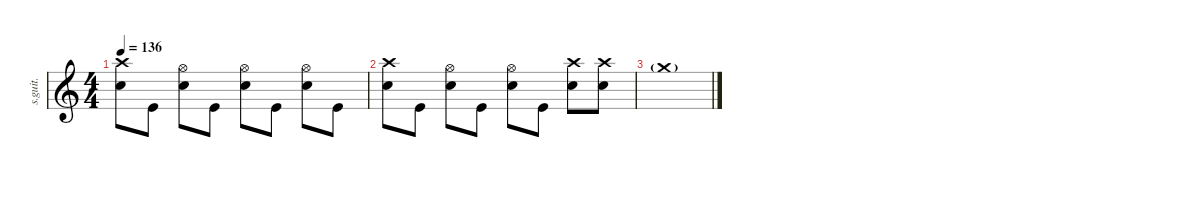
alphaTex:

\defaultSystemsLayout 4
\hideDynamics
\bracketExtendMode nobrackets
\track ("Ilan Rubin" "s.guit.") {instrument percussion}
\staff {score}
\articulation defaults
\ts (4 4)
\tempo 136
\clef g2
\ks c
("Crash high (hit)" "Electric Snare (hit)").8{lyrics (0 "") lyrics (1 "") lyrics (2 "") lyrics (3 "") lyrics (4 "") dy f} "Kick (hit)".8{lyrics (0 "") lyrics (1 "") lyrics (2 "") lyrics (3 "") lyrics (4 "") dy ff} ("Hi-Hat (open)" "Electric Snare (hit)").8{lyrics (0 "") lyrics (1 "") lyrics (2 "") lyrics (3 "") lyrics (4 "") dy f} "Kick (hit)".8{lyrics (0 "") lyrics (1 "") lyrics (2 "") lyrics (3 "") lyrics (4 "") dy ff} ("Hi-Hat (open)" "Electric Snare (hit)").8{lyrics (0 "") lyrics (1 "") lyrics (2 "") lyrics (3 "") lyrics (4 "") dy f} "Kick (hit)".8{lyrics (0 "") lyrics (1 "") lyrics (2 "") lyrics (3 "") lyrics (4 "") dy ff} ("Hi-Hat (open)" "Electric Snare (hit)").8{lyrics (0 "") lyrics (1 "") lyrics (2 "") lyrics (3 "") lyrics (4 "") dy f} "Kick (hit)".8{lyrics (0 "") lyrics (1 "") lyrics (2 "") lyrics (3 "") lyrics (4 "") dy ff} |
("Crash high (hit)" "Electric Snare (hit)").8{lyrics (0 "") lyrics (1 "") lyrics (2 "") lyrics (3 "") lyrics (4 "") dy f} "Kick (hit)".8{lyrics (0 "") lyrics (1 "") lyrics (2 "") lyrics (3 "") lyrics (4 "") dy ff} ("Hi-Hat (open)" "Electric Snare (hit)").8{lyrics (0 "") lyrics (1 "") lyrics (2 "") lyrics (3 "") lyrics (4 "") dy f} "Kick (hit)".8{lyrics (0 "") lyrics (1 "") lyrics (2 "") lyrics (3 "") lyrics (4 "") dy ff} ("Hi-Hat (open)" "Electric Snare (hit)").8{lyrics (0 "") lyrics (1 "") lyrics (2 "") lyrics (3 "") lyrics (4 "") dy f} "Kick (hit)".8{lyrics (0 "") lyrics (1 "") lyrics (2 "") lyrics (3 "") lyrics (4 "") dy ff} ("Crash high (hit)" "Electric Snare (hit)").8{lyrics (0 "") lyrics (1 "") lyrics (2 "") lyrics (3 "") lyrics (4 "") dy f} ("Crash high (hit)" "Electric Snare (hit)").8{lyrics (0 "") lyrics (1 "") lyrics (2 "") lyrics (3 "") lyrics (4 "")} |
"Crash medium (hit)"{g x}.1{lyrics (0 "") lyrics (1 "") lyrics (2 "") lyrics (3 "") lyrics (4 "") dy ppp}
